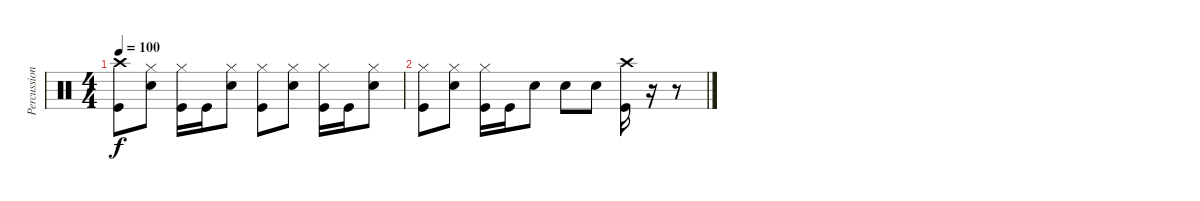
\track ("Percussion" "Percussion") {instrument percussion}
\staff {score}
\articulation defaults
\ts (4 4)
\tempo 100
\clef neutral
\ks c
("Crash high (hit)" "Kick (hit)").8{dy f} ("Hi-Hat (closed)" "Snare (hit) 2").8 ("Hi-Hat (closed)" "Kick (hit)").16 "Kick (hit)".16 ("Hi-Hat (closed)" "Snare (hit) 2").8 ("Hi-Hat (closed)" "Kick (hit)").8 ("Hi-Hat (closed)" "Snare (hit) 2").8 ("Hi-Hat (closed)" "Kick (hit)").16 "Kick (hit)".16 ("Hi-Hat (closed)" "Snare (hit) 2").8 |
("Hi-Hat (closed)" "Kick (hit)").8 ("Hi-Hat (closed)" "Snare (hit) 2").8 ("Hi-Hat (closed)" "Kick (hit)").16 "Kick (hit)".16 "Snare (hit) 2".8 "Snare (hit) 2".8 "Snare (hit) 2".8 ("Crash high (hit)" "Kick (hit)").16 r.16 r.8
